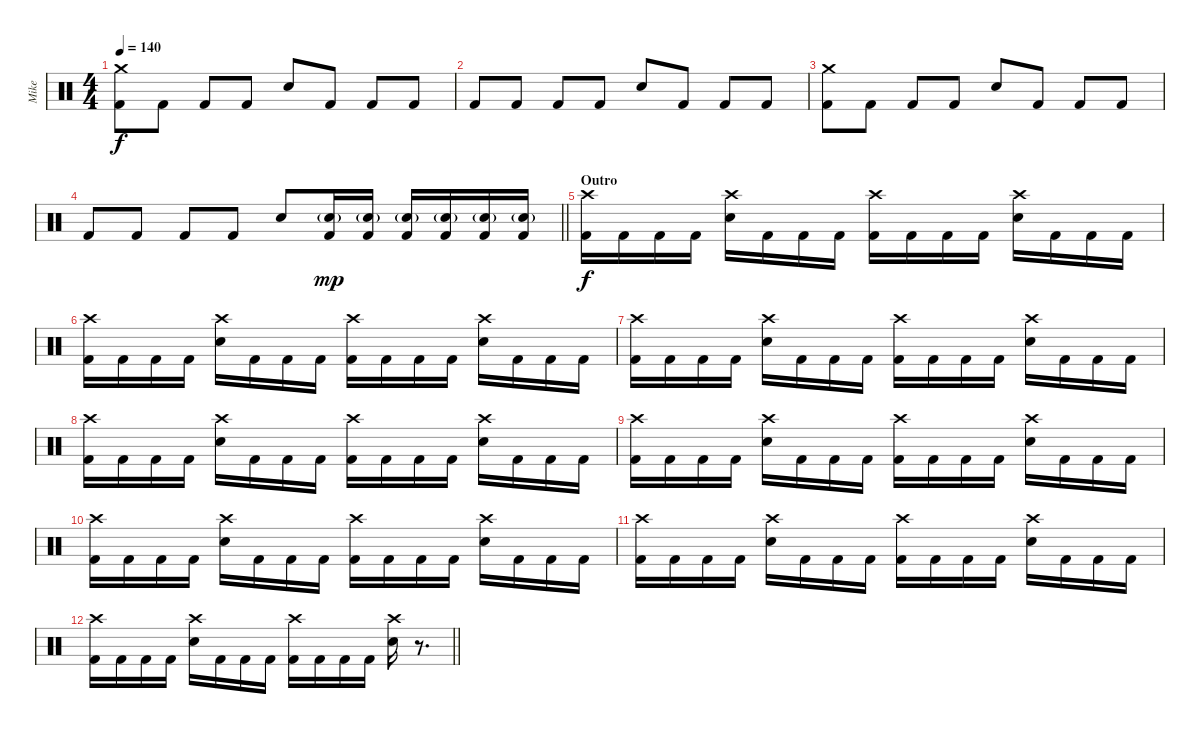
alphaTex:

\track ("Mike" "Mike") {instrument percussion}
\staff {score}
\articulation defaults
\ts (4 4)
\tempo 140
\clef neutral
\ks c
("Crash medium (hit)" "Kick (hit) 2").8{dy f} "Kick (hit) 2".8 "Kick (hit) 2".8 "Kick (hit) 2".8 "Electric Snare (hit)".8 "Kick (hit) 2".8 "Kick (hit) 2".8 "Kick (hit) 2".8 |
"Kick (hit) 2".8 "Kick (hit) 2".8 "Kick (hit) 2".8 "Kick (hit) 2".8 "Electric Snare (hit)".8 "Kick (hit) 2".8 "Kick (hit) 2".8 "Kick (hit) 2".8 |
("Crash medium (hit)" "Kick (hit) 2").8 "Kick (hit) 2".8 "Kick (hit) 2".8 "Kick (hit) 2".8 "Electric Snare (hit)".8 "Kick (hit) 2".8 "Kick (hit) 2".8 "Kick (hit) 2".8 |
\barLineRight lightlight "Kick (hit) 2".8 "Kick (hit) 2".8 "Kick (hit) 2".8 "Kick (hit) 2".8 "Electric Snare (hit)".8
("Electric Snare (hit)"{g} "Kick (hit) 2").16{dy mp} ("Electric Snare (hit)"{g} "Kick (hit) 2").16 ("Electric Snare (hit)"{g} "Kick (hit) 2").16 ("Electric Snare (hit)"{g} "Kick (hit) 2").16 ("Electric Snare (hit)"{g} "Kick (hit) 2").16 ("Electric Snare (hit)"{g} "Kick (hit) 2").16 |
\section ("" "Outro")
("Crash high (hit)" "Kick (hit) 2").16{dy f} "Kick (hit) 2".16 "Kick (hit) 2".16 "Kick (hit) 2".16 ("Crash high (hit)" "Electric Snare (hit)").16 "Kick (hit) 2".16 "Kick (hit) 2".16 "Kick (hit) 2".16 ("Crash high (hit)" "Kick (hit) 2").16 "Kick (hit) 2".16 "Kick (hit) 2".16 "Kick (hit) 2".16 ("Crash high (hit)" "Electric Snare (hit)").16 "Kick (hit) 2".16 "Kick (hit) 2".16 "Kick (hit) 2".16 |
("Crash high (hit)" "Kick (hit) 2").16 "Kick (hit) 2".16 "Kick (hit) 2".16 "Kick (hit) 2".16 ("Crash high (hit)" "Electric Snare (hit)").16 "Kick (hit) 2".16 "Kick (hit) 2".16 "Kick (hit) 2".16 ("Crash high (hit)" "Kick (hit) 2").16 "Kick (hit) 2".16 "Kick (hit) 2".16 "Kick (hit) 2".16 ("Crash high (hit)" "Electric Snare (hit)").16 "Kick (hit) 2".16 "Kick (hit) 2".16 "Kick (hit) 2".16 |
("Crash high (hit)" "Kick (hit) 2").16 "Kick (hit) 2".16 "Kick (hit) 2".16 "Kick (hit) 2".16 ("Crash high (hit)" "Electric Snare (hit)").16 "Kick (hit) 2".16 "Kick (hit) 2".16 "Kick (hit) 2".16 ("Crash high (hit)" "Kick (hit) 2").16 "Kick (hit) 2".16 "Kick (hit) 2".16 "Kick (hit) 2".16 ("Crash high (hit)" "Electric Snare (hit)").16 "Kick (hit) 2".16 "Kick (hit) 2".16 "Kick (hit) 2".16 |
("Crash high (hit)" "Kick (hit) 2").16 "Kick (hit) 2".16 "Kick (hit) 2".16 "Kick (hit) 2".16 ("Crash high (hit)" "Electric Snare (hit)").16 "Kick (hit) 2".16 "Kick (hit) 2".16 "Kick (hit) 2".16 ("Crash high (hit)" "Kick (hit) 2").16 "Kick (hit) 2".16 "Kick (hit) 2".16 "Kick (hit) 2".16 ("Crash high (hit)" "Electric Snare (hit)").16 "Kick (hit) 2".16 "Kick (hit) 2".16 "Kick (hit) 2".16 |
("Crash high (hit)" "Kick (hit) 2").16 "Kick (hit) 2".16 "Kick (hit) 2".16 "Kick (hit) 2".16 ("Crash high (hit)" "Electric Snare (hit)").16 "Kick (hit) 2".16 "Kick (hit) 2".16 "Kick (hit) 2".16 ("Crash high (hit)" "Kick (hit) 2").16 "Kick (hit) 2".16 "Kick (hit) 2".16 "Kick (hit) 2".16 ("Crash high (hit)" "Electric Snare (hit)").16 "Kick (hit) 2".16 "Kick (hit) 2".16 "Kick (hit) 2".16 |
("Crash high (hit)" "Kick (hit) 2").16 "Kick (hit) 2".16 "Kick (hit) 2".16 "Kick (hit) 2".16 ("Crash high (hit)" "Electric Snare (hit)").16 "Kick (hit) 2".16 "Kick (hit) 2".16 "Kick (hit) 2".16 ("Crash high (hit)" "Kick (hit) 2").16 "Kick (hit) 2".16 "Kick (hit) 2".16 "Kick (hit) 2".16 ("Crash high (hit)" "Electric Snare (hit)").16 "Kick (hit) 2".16 "Kick (hit) 2".16 "Kick (hit) 2".16 |
("Crash high (hit)" "Kick (hit) 2").16 "Kick (hit) 2".16 "Kick (hit) 2".16 "Kick (hit) 2".16 ("Crash high (hit)" "Electric Snare (hit)").16 "Kick (hit) 2".16 "Kick (hit) 2".16 "Kick (hit) 2".16 ("Crash high (hit)" "Kick (hit) 2").16 "Kick (hit) 2".16 "Kick (hit) 2".16 "Kick (hit) 2".16 ("Crash high (hit)" "Electric Snare (hit)").16 "Kick (hit) 2".16 "Kick (hit) 2".16 "Kick (hit) 2".16 |
\barLineRight lightlight
("Crash high (hit)" "Kick (hit) 2").16 "Kick (hit) 2".16 "Kick (hit) 2".16 "Kick (hit) 2".16 ("Crash high (hit)" "Electric Snare (hit)").16 "Kick (hit) 2".16 "Kick (hit) 2".16 "Kick (hit) 2".16 ("Crash high (hit)" "Kick (hit) 2").16 "Kick (hit) 2".16 "Kick (hit) 2".16 "Kick (hit) 2".16 ("Crash high (hit)" "Electric Snare (hit)").16 r.8{d}
